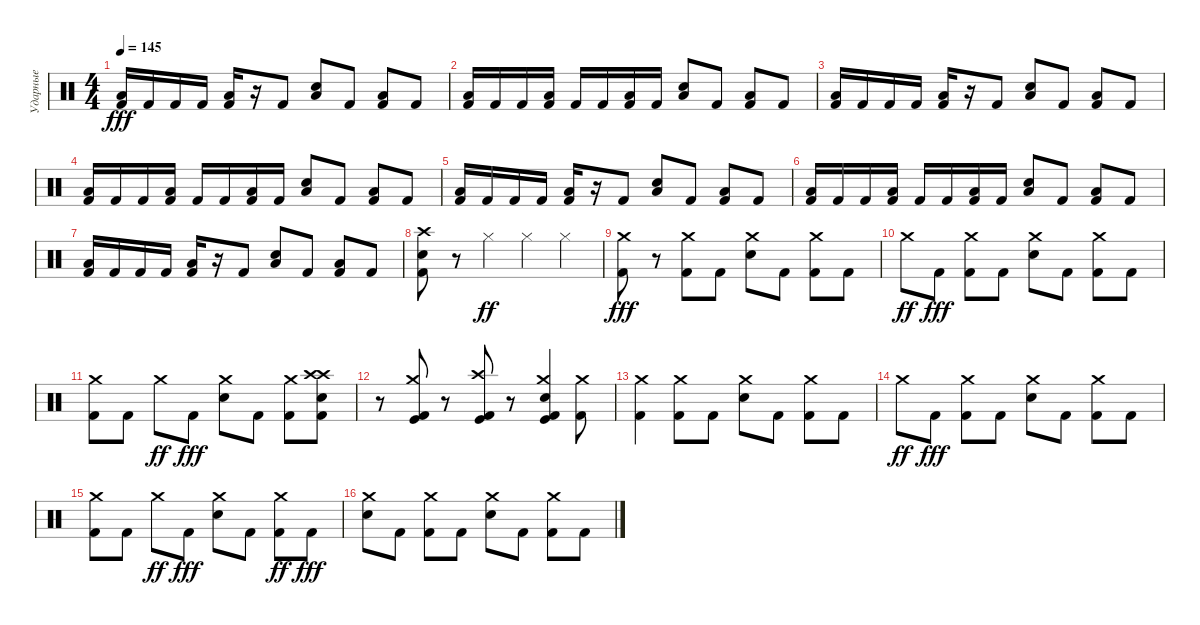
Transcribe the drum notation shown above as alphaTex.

\track ("Ударные" "Ударные") {instrument percussion}
\staff {score}
\articulation defaults
\ts (4 4)
\tempo 145
\clef neutral
\ks c
("Low Tom (hit)" "Kick (hit) 2").16{dy fff} "Kick (hit) 2".16 "Kick (hit) 2".16 "Kick (hit) 2".16 ("Low Tom (hit)" "Kick (hit) 2").16 r.16 "Kick (hit) 2".8 ("Low Tom (hit)" "Electric Snare (hit)").8 "Kick (hit) 2".8 ("Low Tom (hit)" "Kick (hit) 2").8 "Kick (hit) 2".8 |
("Low Tom (hit)" "Kick (hit) 2").16 "Kick (hit) 2".16 "Kick (hit) 2".16 ("Low Tom (hit)" "Kick (hit) 2").16 "Kick (hit) 2".16 "Kick (hit) 2".16 ("Low Tom (hit)" "Kick (hit) 2").16 "Kick (hit) 2".16 ("Low Tom (hit)" "Electric Snare (hit)").8 "Kick (hit) 2".8 ("Low Tom (hit)" "Kick (hit) 2").8 "Kick (hit) 2".8 |
("Low Tom (hit)" "Kick (hit) 2").16 "Kick (hit) 2".16 "Kick (hit) 2".16 "Kick (hit) 2".16 ("Low Tom (hit)" "Kick (hit) 2").16 r.16 "Kick (hit) 2".8 ("Low Tom (hit)" "Electric Snare (hit)").8 "Kick (hit) 2".8 ("Low Tom (hit)" "Kick (hit) 2").8 "Kick (hit) 2".8 |
("Low Tom (hit)" "Kick (hit) 2").16 "Kick (hit) 2".16 "Kick (hit) 2".16 ("Low Tom (hit)" "Kick (hit) 2").16 "Kick (hit) 2".16 "Kick (hit) 2".16 ("Low Tom (hit)" "Kick (hit) 2").16 "Kick (hit) 2".16 ("Low Tom (hit)" "Electric Snare (hit)").8 "Kick (hit) 2".8 ("Low Tom (hit)" "Kick (hit) 2").8 "Kick (hit) 2".8 |
("Low Tom (hit)" "Kick (hit) 2").16 "Kick (hit) 2".16 "Kick (hit) 2".16 "Kick (hit) 2".16 ("Low Tom (hit)" "Kick (hit) 2").16 r.16 "Kick (hit) 2".8 ("Low Tom (hit)" "Electric Snare (hit)").8 "Kick (hit) 2".8 ("Low Tom (hit)" "Kick (hit) 2").8 "Kick (hit) 2".8 |
("Low Tom (hit)" "Kick (hit) 2").16 "Kick (hit) 2".16 "Kick (hit) 2".16 ("Low Tom (hit)" "Kick (hit) 2").16 "Kick (hit) 2".16 "Kick (hit) 2".16 ("Low Tom (hit)" "Kick (hit) 2").16 "Kick (hit) 2".16 ("Low Tom (hit)" "Electric Snare (hit)").8 "Kick (hit) 2".8 ("Low Tom (hit)" "Kick (hit) 2").8 "Kick (hit) 2".8 |
("Low Tom (hit)" "Kick (hit) 2").16 "Kick (hit) 2".16 "Kick (hit) 2".16 "Kick (hit) 2".16 ("Low Tom (hit)" "Kick (hit) 2").16 r.16 "Kick (hit) 2".8 ("Low Tom (hit)" "Electric Snare (hit)").8 "Kick (hit) 2".8 ("Low Tom (hit)" "Kick (hit) 2").8 "Kick (hit) 2".8 |
("Crash high (hit)" "Electric Snare (hit)" "Kick (hit) 2").8 r.8 "Hi-Hat (closed)".4{dy ff} "Hi-Hat (closed)".4 "Hi-Hat (closed)".4 |
("Crash medium (hit)" "Kick (hit) 2").8{dy fff} r.8 ("Crash medium (hit)" "Kick (hit) 2").8 "Kick (hit) 2".8 ("Crash medium (hit)" "Electric Snare (hit)").8 "Kick (hit) 2".8 ("Crash medium (hit)" "Kick (hit) 2").8 "Kick (hit) 2".8 |
"Crash medium (hit)".8{dy ff} "Kick (hit) 2".8{dy fff} ("Crash medium (hit)" "Kick (hit) 2").8 "Kick (hit) 2".8 ("Crash medium (hit)" "Electric Snare (hit)").8 "Kick (hit) 2".8 ("Crash medium (hit)" "Kick (hit) 2").8 "Kick (hit) 2".8 |
("Crash medium (hit)" "Kick (hit) 2").8 "Kick (hit) 2".8 "Crash medium (hit)".8{dy ff} "Kick (hit) 2".8{dy fff} ("Crash medium (hit)" "Electric Snare (hit)").8 "Kick (hit) 2".8 ("Crash medium (hit)" "Kick (hit) 2").8 ("Crash high (hit)" "Crash high (hit)" "Electric Snare (hit)" "Kick (hit) 2").8 |
r.8 ("Crash medium (hit)" "Kick (hit) 2" "Kick (hit)").8 r.8 ("Crash high (hit)" "Kick (hit) 2" "Kick (hit)").8 r.8 ("Crash medium (hit)" "Electric Snare (hit)" "Kick (hit) 2" "Kick (hit)").4 ("Crash medium (hit)" "Kick (hit) 2").8 |
("Crash medium (hit)" "Kick (hit) 2").4 ("Crash medium (hit)" "Kick (hit) 2").8 "Kick (hit) 2".8 ("Crash medium (hit)" "Electric Snare (hit)").8 "Kick (hit) 2".8 ("Crash medium (hit)" "Kick (hit) 2").8 "Kick (hit) 2".8 |
"Crash medium (hit)".8{dy ff} "Kick (hit) 2".8{dy fff} ("Crash medium (hit)" "Kick (hit) 2").8 "Kick (hit) 2".8 ("Crash medium (hit)" "Electric Snare (hit)").8 "Kick (hit) 2".8 ("Crash medium (hit)" "Kick (hit) 2").8 "Kick (hit) 2".8 |
("Crash medium (hit)" "Kick (hit) 2").8 "Kick (hit) 2".8 "Crash medium (hit)".8{dy ff} "Kick (hit) 2".8{dy fff} ("Crash medium (hit)" "Electric Snare (hit)").8 "Kick (hit) 2".8 ("Crash medium (hit)" "Kick (hit) 2").8{dy ff} "Kick (hit) 2".8{dy fff} |
("Crash medium (hit)" "Electric Snare (hit)").8 "Kick (hit) 2".8 ("Crash medium (hit)" "Kick (hit) 2").8 "Kick (hit) 2".8 ("Crash medium (hit)" "Electric Snare (hit)").8 "Kick (hit) 2".8 ("Crash medium (hit)" "Kick (hit) 2").8 "Kick (hit) 2".8
